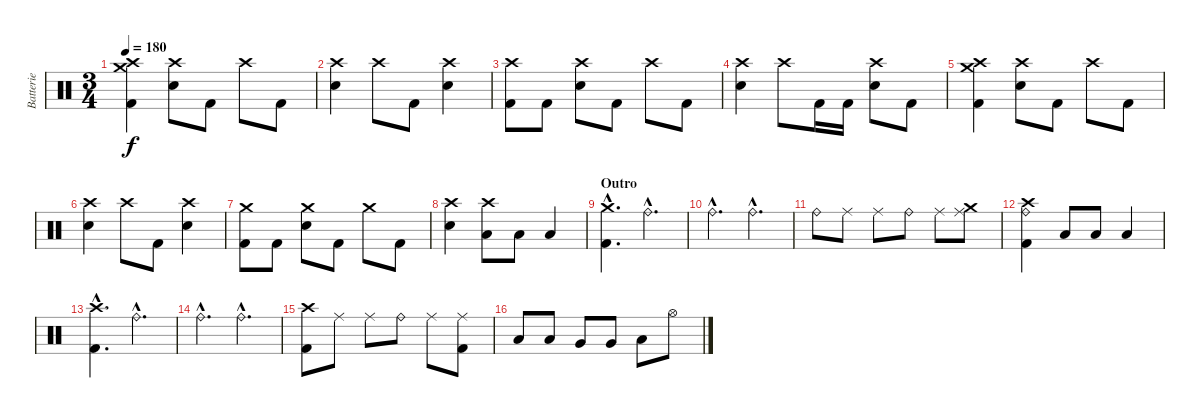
\track ("Batterie" "Batterie") {instrument percussion}
\staff {score}
\articulation defaults
\ts (3 4)
\tempo 180
\clef neutral
\ks c
("Crash medium (hit)" "Crash high (hit)" "Kick (hit) 2").4{dy f} ("Crash high (hit)" "Electric Snare (hit)").8 "Kick (hit) 2".8 "Crash high (hit)".8 "Kick (hit) 2".8 |
("Crash high (hit)" "Electric Snare (hit)").4 "Crash high (hit)".8 "Kick (hit) 2".8 ("Crash high (hit)" "Electric Snare (hit)").4 |
("Crash high (hit)" "Kick (hit) 2").8 "Kick (hit) 2".8 ("Crash high (hit)" "Electric Snare (hit)").8 "Kick (hit) 2".8 "Crash high (hit)".8 "Kick (hit) 2".8 |
("Crash high (hit)" "Electric Snare (hit)").4 "Crash high (hit)".8 "Kick (hit) 2".16 "Kick (hit) 2".16 ("Crash high (hit)" "Electric Snare (hit)").8 "Kick (hit) 2".8 |
("Crash medium (hit)" "Crash high (hit)" "Kick (hit) 2").4 ("Crash high (hit)" "Electric Snare (hit)").8 "Kick (hit) 2".8 "Crash high (hit)".8 "Kick (hit) 2".8 |
("Crash high (hit)" "Electric Snare (hit)").4 "Crash high (hit)".8 "Kick (hit) 2".8 ("Crash high (hit)" "Electric Snare (hit)").4 |
("Crash medium (hit)" "Kick (hit) 2").8 "Kick (hit) 2".8 ("Crash medium (hit)" "Electric Snare (hit)").8 "Kick (hit) 2".8 "Crash medium (hit)".8 "Kick (hit) 2".8 |
("Crash high (hit)" "Electric Snare (hit)").4 ("Crash high (hit)" "Low Tom (hit)").8 "Low Tom (hit)".8 "Low Floor Tom (hit)".4 |
\section ("" "Outro")
("Crash medium (hit)"{hac} "Kick (hit) 2"{hac}).4{d} "Ride (bell)"{hac}.4{d} |
"Ride (bell)"{hac}.4{d} "Ride (bell)"{hac}.4{d} |
"Ride (bell)".8 "Ride (middle)".8 "Ride (middle)".8 "Ride (bell)".8 "Ride (middle)".8 ("Crash medium (hit)" "Ride (middle)").8 |
("Crash high (hit)" "Ride (bell)" "Kick (hit) 2").4 "Low Tom (hit)".8 "Low Tom (hit)".8 "Low Floor Tom (hit)".4 |
("Crash high (hit)"{hac} "Kick (hit) 2"{hac}).4{d} "Ride (bell)"{hac}.4{d} |
"Ride (bell)"{hac}.4{d} "Ride (bell)"{hac}.4{d} |
("Crash high (hit)" "Kick (hit) 2").8 "Ride (middle)".8 "Ride (middle)".8 "Ride (bell)".8 "Ride (middle)".8 ("Ride (middle)" "Kick (hit) 2").8 |
"Low Tom (hit)".8 "Low Tom (hit)".8 "Very Low Tom (hit)".8 "Very Low Tom (hit)".8 "Low Floor Tom (hit)".8 "Hi-Hat (open)".8
